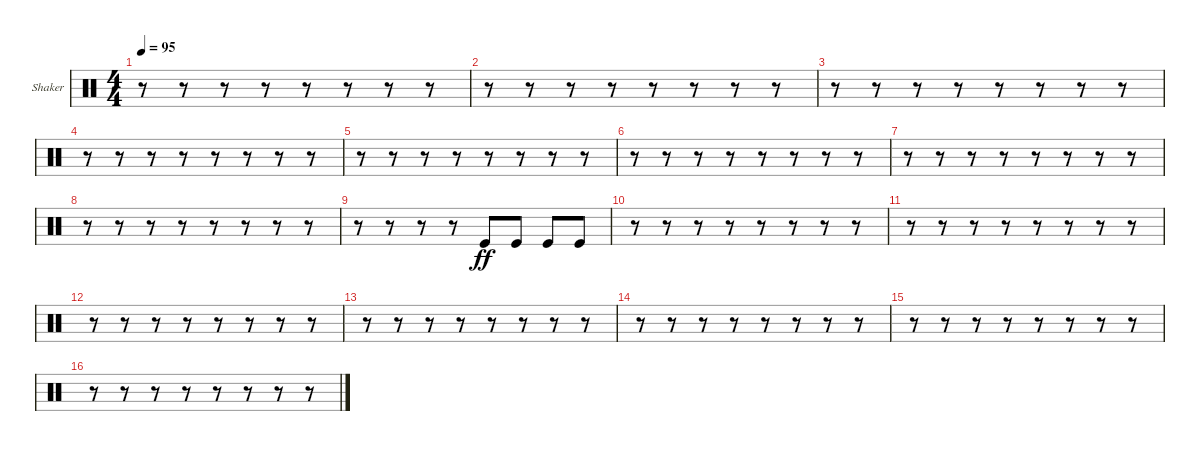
\bracketExtendMode groupsimilarinstruments
\firstSystemTrackNameOrientation horizontal
\otherSystemsTrackNameOrientation horizontal
\track ("Shaker" "Shaker") {instrument percussion}
\staff {score}
\articulation defaults
\ts (4 4)
\beaming (8 2 2 2 2)
\tempo 95
\clef neutral
\ks c
r.8{dy ff} r.8 r.8 r.8 r.8 r.8 r.8 r.8 |
r.8 r.8 r.8 r.8 r.8 r.8 r.8 r.8 |
r.8 r.8 r.8 r.8 r.8 r.8 r.8 r.8 |
r.8 r.8 r.8 r.8 r.8 r.8 r.8 r.8 |
r.8 r.8 r.8 r.8 r.8 r.8 r.8 r.8 |
r.8 r.8 r.8 r.8 r.8 r.8 r.8 r.8 |
r.8 r.8 r.8 r.8 r.8 r.8 r.8 r.8 |
r.8 r.8 r.8 r.8 r.8 r.8 r.8 r.8 |
r.8 r.8 r.8 r.8 "Kick (hit)".8 "Kick (hit)".8 "Kick (hit)".8 "Kick (hit)".8 |
r.8 r.8 r.8 r.8 r.8 r.8 r.8 r.8 |
r.8 r.8 r.8 r.8 r.8 r.8 r.8 r.8 |
r.8 r.8 r.8 r.8 r.8 r.8 r.8 r.8 |
r.8 r.8 r.8 r.8 r.8 r.8 r.8 r.8 |
r.8 r.8 r.8 r.8 r.8 r.8 r.8 r.8 |
r.8 r.8 r.8 r.8 r.8 r.8 r.8 r.8 |
r.8 r.8 r.8 r.8 r.8 r.8 r.8 r.8
